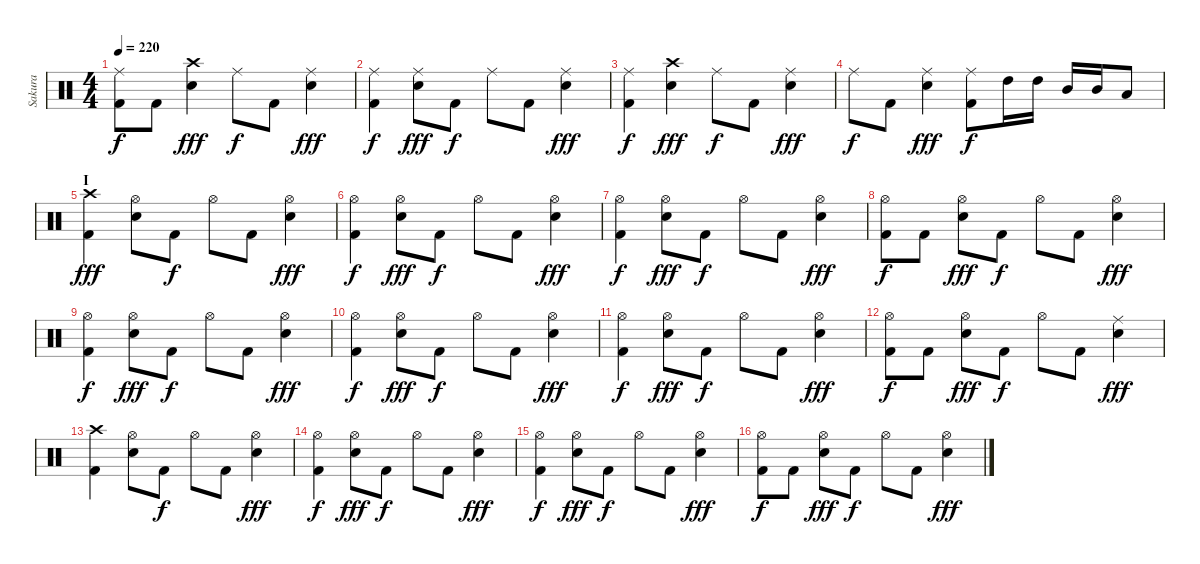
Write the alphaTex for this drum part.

\track ("Sakura" "Sakura") {instrument percussion}
\staff {score}
\articulation defaults
\ts (4 4)
\tempo 220
\clef neutral
\ks c
("Ride (middle)" "Kick (hit) 2").8{dy f} "Kick (hit) 2".8 ("Crash high (hit)" "Electric Snare (hit)").4{dy fff} "Ride (middle)".8{dy f} "Kick (hit) 2".8 ("Ride (middle)" "Electric Snare (hit)").4{dy fff} |
("Ride (middle)" "Kick (hit) 2").4{dy f} ("Ride (middle)" "Electric Snare (hit)").8{dy fff} "Kick (hit) 2".8{dy f} "Ride (middle)".8 "Kick (hit) 2".8 ("Ride (middle)" "Electric Snare (hit)").4{dy fff} |
("Ride (middle)" "Kick (hit) 2").4{dy f} ("Crash high (hit)" "Electric Snare (hit)").4{dy fff} "Ride (middle)".8{dy f} "Kick (hit) 2".8 ("Ride (middle)" "Electric Snare (hit)").4{dy fff} |
"Ride (middle)".8{dy f} "Kick (hit) 2".8 ("Ride (middle)" "Electric Snare (hit)").4{dy fff} ("Ride (middle)" "Kick (hit) 2").8{dy f} "High Tom (hit)".16 "High Tom (hit)".16 "Mid Tom (hit)".16 "Mid Tom (hit)".16 "Low Tom (hit)".8 |
\section ("" "I")
("Crash high (hit)" "Kick (hit) 2").4{dy fff} ("Hi-Hat (open)" "Electric Snare (hit)").8 "Kick (hit) 2".8{dy f} "Hi-Hat (open)".8 "Kick (hit) 2".8 ("Hi-Hat (open)" "Electric Snare (hit)").4{dy fff} |
("Hi-Hat (open)" "Kick (hit) 2").4{dy f} ("Hi-Hat (open)" "Electric Snare (hit)").8{dy fff} "Kick (hit) 2".8{dy f} "Hi-Hat (open)".8 "Kick (hit) 2".8 ("Hi-Hat (open)" "Electric Snare (hit)").4{dy fff} |
("Hi-Hat (open)" "Kick (hit) 2").4{dy f} ("Hi-Hat (open)" "Electric Snare (hit)").8{dy fff} "Kick (hit) 2".8{dy f} "Hi-Hat (open)".8 "Kick (hit) 2".8 ("Hi-Hat (open)" "Electric Snare (hit)").4{dy fff} |
("Hi-Hat (open)" "Kick (hit) 2").8{dy f} "Kick (hit) 2".8 ("Hi-Hat (open)" "Electric Snare (hit)").8{dy fff} "Kick (hit) 2".8{dy f} "Hi-Hat (open)".8 "Kick (hit) 2".8 ("Hi-Hat (open)" "Electric Snare (hit)").4{dy fff} |
("Hi-Hat (open)" "Kick (hit) 2").4{dy f} ("Hi-Hat (open)" "Electric Snare (hit)").8{dy fff} "Kick (hit) 2".8{dy f} "Hi-Hat (open)".8 "Kick (hit) 2".8 ("Hi-Hat (open)" "Electric Snare (hit)").4{dy fff} |
("Hi-Hat (open)" "Kick (hit) 2").4{dy f} ("Hi-Hat (open)" "Electric Snare (hit)").8{dy fff} "Kick (hit) 2".8{dy f} "Hi-Hat (open)".8 "Kick (hit) 2".8 ("Hi-Hat (open)" "Electric Snare (hit)").4{dy fff} |
("Hi-Hat (open)" "Kick (hit) 2").4{dy f} ("Hi-Hat (open)" "Electric Snare (hit)").8{dy fff} "Kick (hit) 2".8{dy f} "Hi-Hat (open)".8 "Kick (hit) 2".8 ("Hi-Hat (open)" "Electric Snare (hit)").4{dy fff} |
("Hi-Hat (open)" "Kick (hit) 2").8{dy f} "Kick (hit) 2".8 ("Hi-Hat (open)" "Electric Snare (hit)").8{dy fff} "Kick (hit) 2".8{dy f} "Hi-Hat (open)".8 "Kick (hit) 2".8 ("Ride (middle)" "Electric Snare (hit)").4{dy fff} |
("Crash high (hit)" "Kick (hit) 2").4 ("Hi-Hat (open)" "Electric Snare (hit)").8 "Kick (hit) 2".8{dy f} "Hi-Hat (open)".8 "Kick (hit) 2".8 ("Hi-Hat (open)" "Electric Snare (hit)").4{dy fff} |
("Hi-Hat (open)" "Kick (hit) 2").4{dy f} ("Hi-Hat (open)" "Electric Snare (hit)").8{dy fff} "Kick (hit) 2".8{dy f} "Hi-Hat (open)".8 "Kick (hit) 2".8 ("Hi-Hat (open)" "Electric Snare (hit)").4{dy fff} |
("Hi-Hat (open)" "Kick (hit) 2").4{dy f} ("Hi-Hat (open)" "Electric Snare (hit)").8{dy fff} "Kick (hit) 2".8{dy f} "Hi-Hat (open)".8 "Kick (hit) 2".8 ("Hi-Hat (open)" "Electric Snare (hit)").4{dy fff} |
("Hi-Hat (open)" "Kick (hit) 2").8{dy f} "Kick (hit) 2".8 ("Hi-Hat (open)" "Electric Snare (hit)").8{dy fff} "Kick (hit) 2".8{dy f} "Hi-Hat (open)".8 "Kick (hit) 2".8 ("Hi-Hat (open)" "Electric Snare (hit)").4{dy fff}
